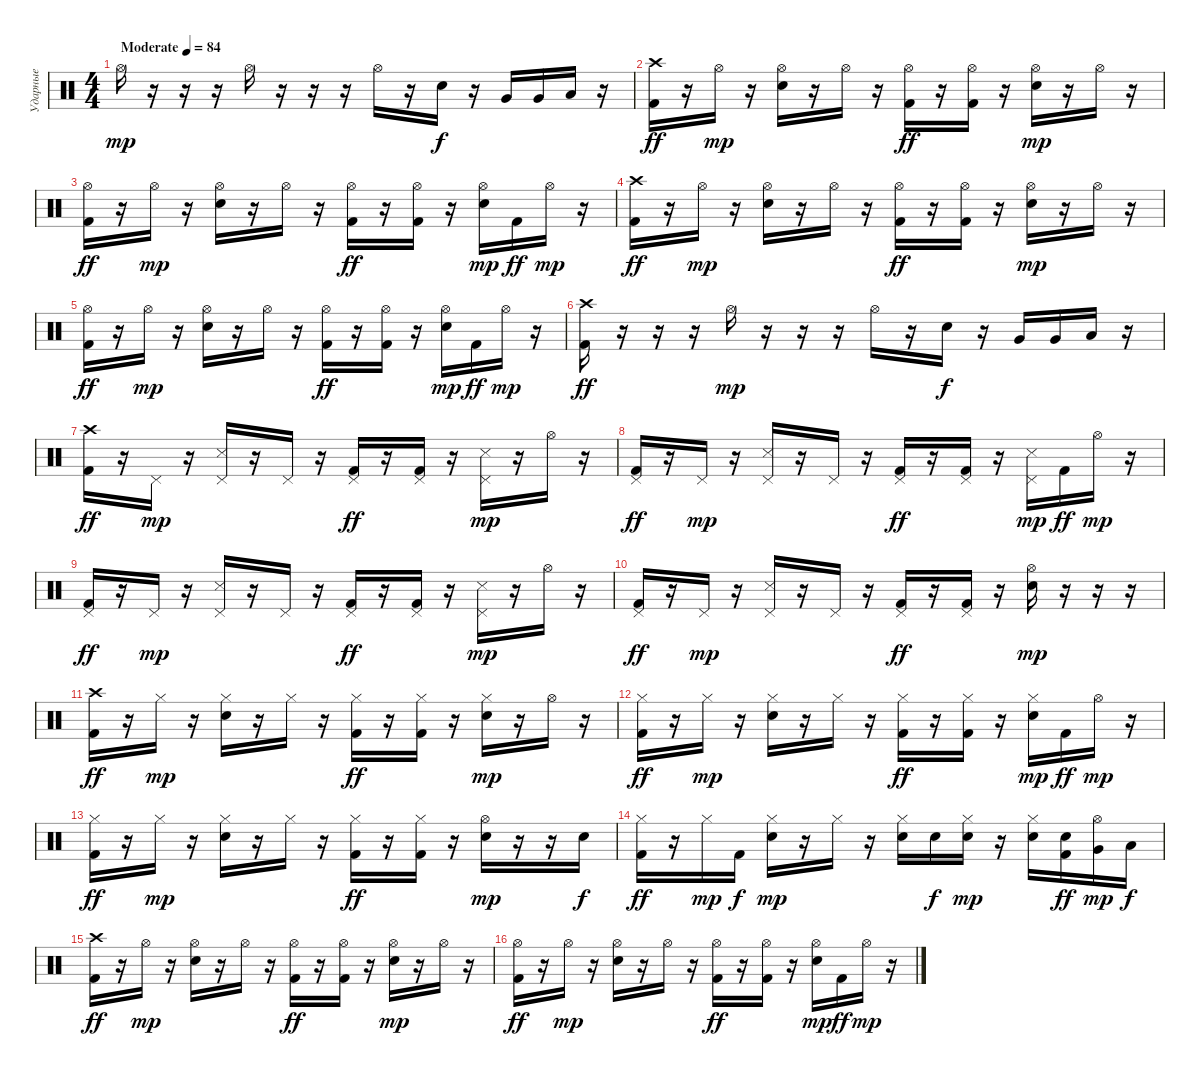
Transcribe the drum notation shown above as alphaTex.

\track ("Ударные" "Ударные") {instrument percussion}
\staff {score}
\articulation defaults
\ts (4 4)
\tempo (84 "Moderate")
\clef neutral
\ks c "Hi-Hat (open)".16{dy mp}
r.16 r.16 r.16 "Hi-Hat (open)".16 r.16 r.16 r.16 "Hi-Hat (open)".16 r.16 "Electric Snare (hit)".16{dy f} r.16 "Very Low Tom (hit)".16 "Very Low Tom (hit)".16 "Low Floor Tom (hit)".16 r.16 |
("Crash high (hit)" "Kick (hit) 2").16{dy ff} r.16 "Hi-Hat (open)".16{dy mp} r.16 ("Hi-Hat (open)" "Electric Snare (hit)").16 r.16 "Hi-Hat (open)".16 r.16 ("Hi-Hat (open)" "Kick (hit) 2").16{dy ff} r.16 ("Hi-Hat (open)" "Kick (hit) 2").16 r.16 ("Hi-Hat (open)" "Electric Snare (hit)").16{dy mp} r.16 "Hi-Hat (open)".16 r.16 |
("Hi-Hat (open)" "Kick (hit) 2").16{dy ff} r.16 "Hi-Hat (open)".16{dy mp} r.16 ("Hi-Hat (open)" "Electric Snare (hit)").16 r.16 "Hi-Hat (open)".16 r.16 ("Hi-Hat (open)" "Kick (hit) 2").16{dy ff} r.16 ("Hi-Hat (open)" "Kick (hit) 2").16 r.16 ("Hi-Hat (open)" "Electric Snare (hit)").16{dy mp} "Kick (hit) 2".16{dy ff} "Hi-Hat (open)".16{dy mp} r.16 |
("Crash high (hit)" "Kick (hit) 2").16{dy ff} r.16 "Hi-Hat (open)".16{dy mp} r.16 ("Hi-Hat (open)" "Electric Snare (hit)").16 r.16 "Hi-Hat (open)".16 r.16 ("Hi-Hat (open)" "Kick (hit) 2").16{dy ff} r.16 ("Hi-Hat (open)" "Kick (hit) 2").16 r.16 ("Hi-Hat (open)" "Electric Snare (hit)").16{dy mp} r.16 "Hi-Hat (open)".16 r.16 |
("Hi-Hat (open)" "Kick (hit) 2").16{dy ff} r.16 "Hi-Hat (open)".16{dy mp} r.16 ("Hi-Hat (open)" "Electric Snare (hit)").16 r.16 "Hi-Hat (open)".16 r.16 ("Hi-Hat (open)" "Kick (hit) 2").16{dy ff} r.16 ("Hi-Hat (open)" "Kick (hit) 2").16 r.16 ("Hi-Hat (open)" "Electric Snare (hit)").16{dy mp} "Kick (hit) 2".16{dy ff} "Hi-Hat (open)".16{dy mp} r.16 |
("Crash high (hit)" "Kick (hit) 2").16{dy ff} r.16 r.16 r.16 "Hi-Hat (open)".16{dy mp} r.16 r.16 r.16 "Hi-Hat (open)".16 r.16 "Electric Snare (hit)".16{dy f} r.16 "Very Low Tom (hit)".16 "Very Low Tom (hit)".16 "Low Floor Tom (hit)".16 r.16 |
("Crash high (hit)" "Kick (hit) 2").16{dy ff} r.16 "Pedal Hi-Hat (hit)".16{dy mp} r.16 ("Pedal Hi-Hat (hit)" "Snare (side stick) 3").16 r.16 "Pedal Hi-Hat (hit)".16 r.16 ("Pedal Hi-Hat (hit)" "Kick (hit) 2").16{dy ff} r.16 ("Pedal Hi-Hat (hit)" "Kick (hit) 2").16 r.16 ("Pedal Hi-Hat (hit)" "Snare (side stick) 3").16{dy mp} r.16 "Hi-Hat (open)".16 r.16 |
("Pedal Hi-Hat (hit)" "Kick (hit) 2").16{dy ff} r.16 "Pedal Hi-Hat (hit)".16{dy mp} r.16 ("Pedal Hi-Hat (hit)" "Snare (side stick) 3").16 r.16 "Pedal Hi-Hat (hit)".16 r.16 ("Pedal Hi-Hat (hit)" "Kick (hit) 2").16{dy ff} r.16 ("Pedal Hi-Hat (hit)" "Kick (hit) 2").16 r.16 ("Pedal Hi-Hat (hit)" "Snare (side stick) 3").16{dy mp} "Kick (hit) 2".16{dy ff} "Hi-Hat (open)".16{dy mp} r.16 |
("Pedal Hi-Hat (hit)" "Kick (hit) 2").16{dy ff} r.16 "Pedal Hi-Hat (hit)".16{dy mp} r.16 ("Pedal Hi-Hat (hit)" "Snare (side stick) 3").16 r.16 "Pedal Hi-Hat (hit)".16 r.16 ("Pedal Hi-Hat (hit)" "Kick (hit) 2").16{dy ff} r.16 ("Pedal Hi-Hat (hit)" "Kick (hit) 2").16 r.16 ("Pedal Hi-Hat (hit)" "Snare (side stick) 3").16{dy mp} r.16 "Hi-Hat (open)".16 r.16 |
("Pedal Hi-Hat (hit)" "Kick (hit) 2").16{dy ff} r.16 "Pedal Hi-Hat (hit)".16{dy mp} r.16 ("Pedal Hi-Hat (hit)" "Snare (side stick) 3").16 r.16 "Pedal Hi-Hat (hit)".16 r.16 ("Pedal Hi-Hat (hit)" "Kick (hit) 2").16{dy ff} r.16 ("Pedal Hi-Hat (hit)" "Kick (hit) 2").16 r.16 ("Hi-Hat (open)" "Electric Snare (hit)").16{dy mp} r.16 r.16 r.16 |
("Crash high (hit)" "Kick (hit) 2").16{dy ff} r.16 "Hi-Hat (closed)".16{dy mp} r.16 ("Hi-Hat (closed)" "Electric Snare (hit)").16 r.16 "Hi-Hat (closed)".16 r.16 ("Hi-Hat (closed)" "Kick (hit) 2").16{dy ff} r.16 ("Hi-Hat (closed)" "Kick (hit) 2").16 r.16 ("Hi-Hat (closed)" "Electric Snare (hit)").16{dy mp} r.16 "Hi-Hat (open)".16 r.16 |
("Hi-Hat (closed)" "Kick (hit) 2").16{dy ff} r.16 "Hi-Hat (closed)".16{dy mp} r.16 ("Hi-Hat (closed)" "Electric Snare (hit)").16 r.16 "Hi-Hat (closed)".16 r.16 ("Hi-Hat (closed)" "Kick (hit) 2").16{dy ff} r.16 ("Hi-Hat (closed)" "Kick (hit) 2").16 r.16 ("Hi-Hat (closed)" "Electric Snare (hit)").16{dy mp} "Kick (hit) 2".16{dy ff} "Hi-Hat (open)".16{dy mp} r.16 |
("Hi-Hat (closed)" "Kick (hit) 2").16{dy ff} r.16 "Hi-Hat (closed)".16{dy mp} r.16 ("Hi-Hat (closed)" "Electric Snare (hit)").16 r.16 "Hi-Hat (closed)".16 r.16 ("Hi-Hat (closed)" "Kick (hit) 2").16{dy ff} r.16 ("Hi-Hat (closed)" "Kick (hit) 2").16 r.16 ("Hi-Hat (open)" "Electric Snare (hit)").16{dy mp} r.16 r.16 "Electric Snare (hit)".16{dy f} |
("Hi-Hat (closed)" "Kick (hit) 2").16{dy ff} r.16 "Hi-Hat (closed)".16{dy mp} "Kick (hit) 2".16{dy f} ("Hi-Hat (closed)" "Electric Snare (hit)").16{dy mp} r.16 "Hi-Hat (closed)".16 r.16 ("Hi-Hat (closed)" "Electric Snare (hit)").16 "Electric Snare (hit)".16{dy f} ("Hi-Hat (closed)" "Electric Snare (hit)").16{dy mp} r.16 ("Hi-Hat (closed)" "Electric Snare (hit)").16 ("Electric Snare (hit)" "Kick (hit) 2").16{dy ff} ("Hi-Hat (open)" "Very Low Tom (hit)").16{dy mp} "Low Floor Tom (hit)".16{dy f} |
("Crash high (hit)" "Kick (hit) 2").16{dy ff} r.16 "Hi-Hat (open)".16{dy mp} r.16 ("Hi-Hat (open)" "Electric Snare (hit)").16 r.16 "Hi-Hat (open)".16 r.16 ("Hi-Hat (open)" "Kick (hit) 2").16{dy ff} r.16 ("Hi-Hat (open)" "Kick (hit) 2").16 r.16 ("Hi-Hat (open)" "Electric Snare (hit)").16{dy mp} r.16 "Hi-Hat (open)".16 r.16 |
("Hi-Hat (open)" "Kick (hit) 2").16{dy ff} r.16 "Hi-Hat (open)".16{dy mp} r.16 ("Hi-Hat (open)" "Electric Snare (hit)").16 r.16 "Hi-Hat (open)".16 r.16 ("Hi-Hat (open)" "Kick (hit) 2").16{dy ff} r.16 ("Hi-Hat (open)" "Kick (hit) 2").16 r.16 ("Hi-Hat (open)" "Electric Snare (hit)").16{dy mp} "Kick (hit) 2".16{dy ff} "Hi-Hat (open)".16{dy mp} r.16
